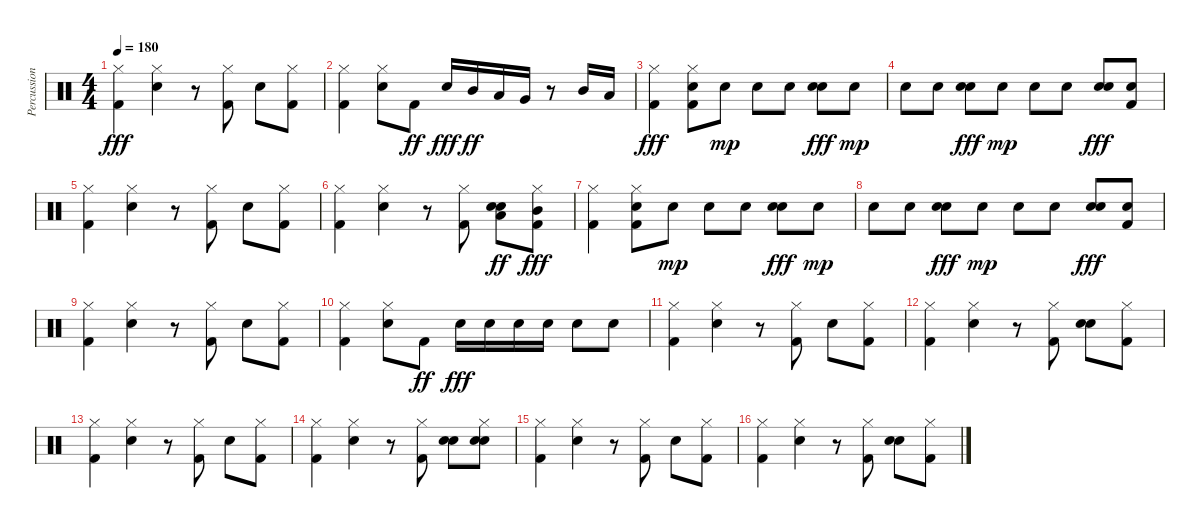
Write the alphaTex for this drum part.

\track ("Percussion" "Percussion") {instrument percussion}
\staff {score}
\articulation defaults
\ts (4 4)
\tempo 180
\clef neutral
\ks c
("Hi-Hat (closed)" "Kick (hit) 2").4{dy fff} ("Hi-Hat (closed)" "Snare (hit) 2").4 r.8 ("Hi-Hat (closed)" "Kick (hit) 2").8 "Snare (hit) 2".8 ("Hi-Hat (closed)" "Kick (hit) 2").8 |
("Hi-Hat (closed)" "Kick (hit) 2").4 ("Hi-Hat (closed)" "Snare (hit) 2").8 "Kick (hit) 2".8{dy ff} "Snare (hit) 2".16{dy fff} "Mid Tom (hit)".16{dy ff} "Low Tom (hit)".16 "Very Low Tom (hit)".16 r.8 "Mid Tom (hit)".16 "Low Tom (hit)".16 |
("Hi-Hat (closed)" "Kick (hit) 2").4{dy fff} ("Hi-Hat (closed)" "Snare (hit) 2" "Kick (hit) 2").8 "Snare (hit) 2".8{dy mp} "Snare (hit) 2".8 "Snare (hit) 2".8 ("Snare (hit) 2" "Snare (hit) 2").8{dy fff} "Snare (hit) 2".8{dy mp} |
"Snare (hit) 2".8 "Snare (hit) 2".8 ("Snare (hit) 2" "Snare (hit) 2").8{dy fff} "Snare (hit) 2".8{dy mp} "Snare (hit) 2".8 "Snare (hit) 2".8 ("Snare (hit) 2" "Snare (hit) 2").8{dy fff} ("Snare (hit) 2" "Kick (hit) 2").8 |
("Hi-Hat (closed)" "Kick (hit) 2").4 ("Hi-Hat (closed)" "Snare (hit) 2").4 r.8 ("Hi-Hat (closed)" "Kick (hit) 2").8 "Snare (hit) 2".8 ("Hi-Hat (closed)" "Kick (hit) 2").8 |
("Hi-Hat (closed)" "Kick (hit) 2").4 ("Hi-Hat (closed)" "Snare (hit) 2").4 r.8 ("Hi-Hat (closed)" "Kick (hit) 2").8 ("Snare (hit) 2" "Snare (hit) 2" "Low Tom (hit)").8{dy ff} ("Hi-Hat (closed)" "Mid Tom (hit)" "Kick (hit) 2").8{dy fff} |
("Hi-Hat (closed)" "Kick (hit) 2").4 ("Hi-Hat (closed)" "Snare (hit) 2" "Kick (hit) 2").8 "Snare (hit) 2".8{dy mp} "Snare (hit) 2".8 "Snare (hit) 2".8 ("Snare (hit) 2" "Snare (hit) 2").8{dy fff} "Snare (hit) 2".8{dy mp} |
"Snare (hit) 2".8 "Snare (hit) 2".8 ("Snare (hit) 2" "Snare (hit) 2").8{dy fff} "Snare (hit) 2".8{dy mp} "Snare (hit) 2".8 "Snare (hit) 2".8 ("Snare (hit) 2" "Snare (hit) 2").8{dy fff} ("Snare (hit) 2" "Kick (hit) 2").8 |
("Hi-Hat (closed)" "Kick (hit) 2").4 ("Hi-Hat (closed)" "Snare (hit) 2").4 r.8 ("Hi-Hat (closed)" "Kick (hit) 2").8 "Snare (hit) 2".8 ("Hi-Hat (closed)" "Kick (hit) 2").8 |
("Hi-Hat (closed)" "Kick (hit) 2").4 ("Hi-Hat (closed)" "Snare (hit) 2").8 "Kick (hit) 2".8{dy ff} "Snare (hit) 2".16{dy fff} "Snare (hit) 2".16 "Snare (hit) 2".16 "Snare (hit) 2".16 "Snare (hit) 2".8 "Snare (hit) 2".8 |
("Hi-Hat (closed)" "Kick (hit) 2").4 ("Hi-Hat (closed)" "Snare (hit) 2").4 r.8 ("Hi-Hat (closed)" "Kick (hit) 2").8 "Snare (hit) 2".8 ("Hi-Hat (closed)" "Kick (hit) 2").8 |
("Hi-Hat (closed)" "Kick (hit) 2").4 ("Hi-Hat (closed)" "Snare (hit) 2").4 r.8 ("Hi-Hat (closed)" "Kick (hit) 2").8 ("Snare (hit) 2" "Snare (hit) 2").8 ("Hi-Hat (closed)" "Kick (hit) 2").8 |
("Hi-Hat (closed)" "Kick (hit) 2").4 ("Hi-Hat (closed)" "Snare (hit) 2").4 r.8 ("Hi-Hat (closed)" "Kick (hit) 2").8 "Snare (hit) 2".8 ("Hi-Hat (closed)" "Kick (hit) 2").8 |
("Hi-Hat (closed)" "Kick (hit) 2").4 ("Hi-Hat (closed)" "Snare (hit) 2").4 r.8 ("Hi-Hat (closed)" "Kick (hit) 2").8 ("Snare (hit) 2" "Snare (hit) 2").8 ("Hi-Hat (closed)" "Snare (hit) 2" "Snare (hit) 2").8 |
("Hi-Hat (closed)" "Kick (hit) 2").4 ("Hi-Hat (closed)" "Snare (hit) 2").4 r.8 ("Hi-Hat (closed)" "Kick (hit) 2").8 "Snare (hit) 2".8 ("Hi-Hat (closed)" "Kick (hit) 2").8 |
("Hi-Hat (closed)" "Kick (hit) 2").4 ("Hi-Hat (closed)" "Snare (hit) 2").4 r.8 ("Hi-Hat (closed)" "Kick (hit) 2").8 ("Snare (hit) 2" "Snare (hit) 2").8 ("Hi-Hat (closed)" "Kick (hit) 2").8
